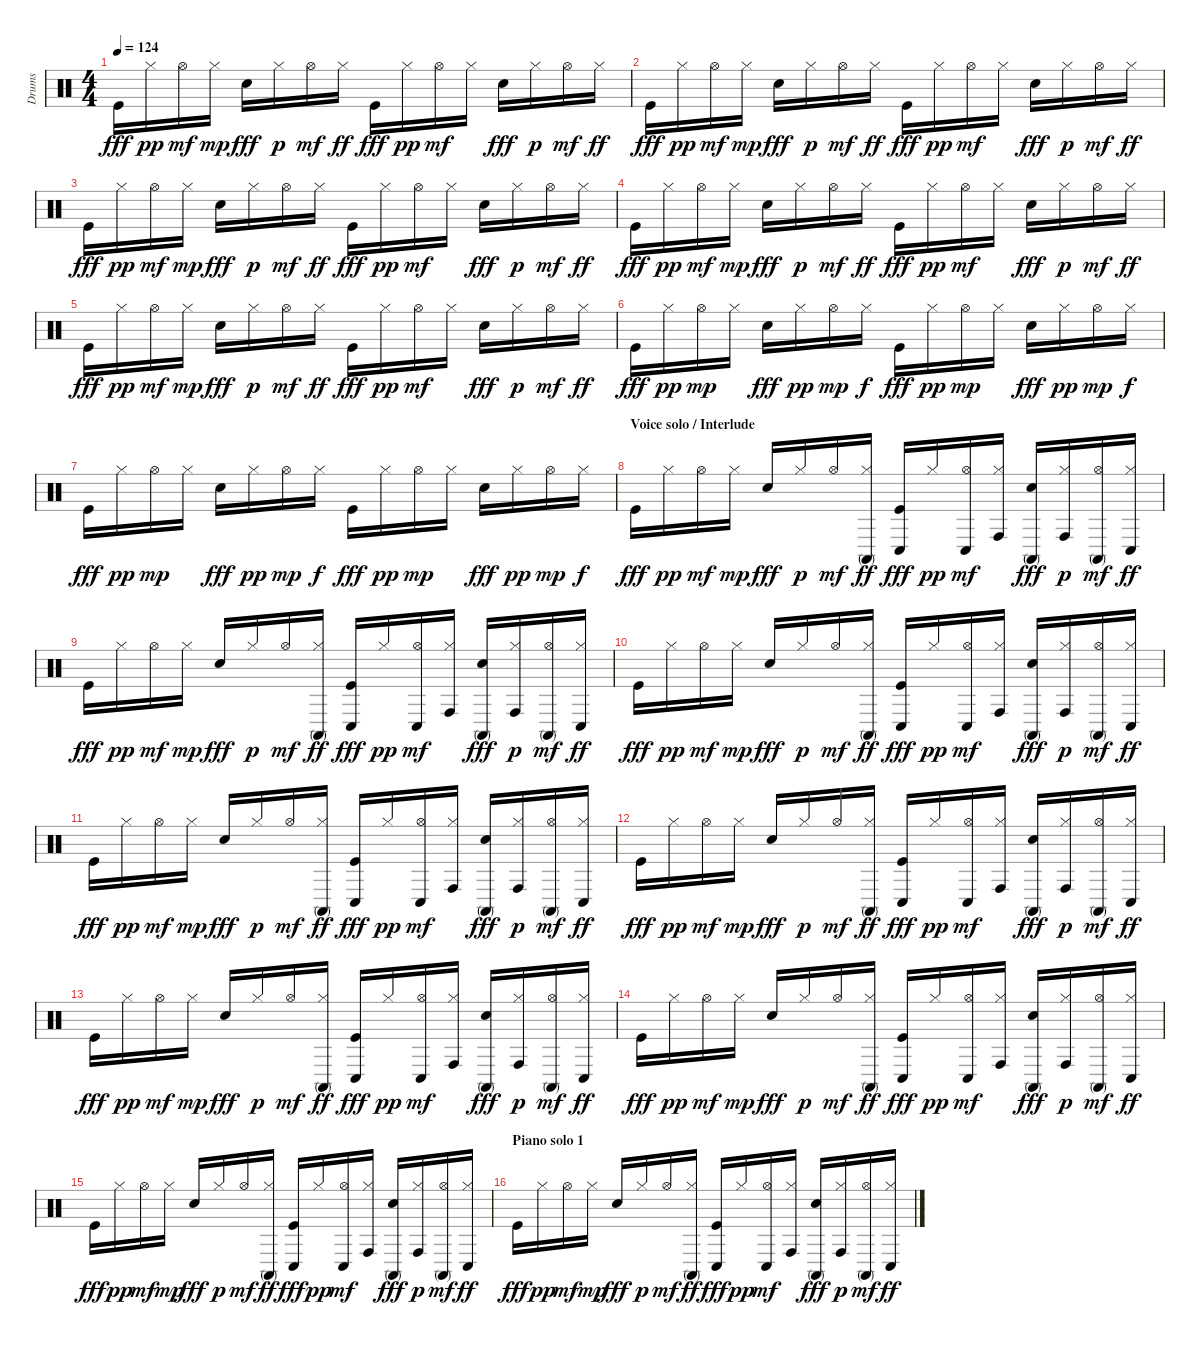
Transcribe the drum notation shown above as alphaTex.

\track ("Drums" "Drums") {instrument percussion}
\staff {score}
\articulation defaults
\ts (4 4)
\tempo 124
\clef neutral
\ks c "Kick (hit)".16{dy fff} "Hi-Hat (closed)".16{dy pp} "Hi-Hat (open)".16{dy mf} "Hi-Hat (closed)".16{dy mp} "Electric Snare (hit)".16{dy fff} "Hi-Hat (closed)".16{dy p} "Hi-Hat (open)".16{dy mf} "Hi-Hat (closed)".16{dy ff} "Kick (hit)".16{dy fff} "Hi-Hat (closed)".16{dy pp} "Hi-Hat (open)".16{dy mf} "Hi-Hat (closed)".16 "Electric Snare (hit)".16{dy fff} "Hi-Hat (closed)".16{dy p} "Hi-Hat (open)".16{dy mf} "Hi-Hat (closed)".16{dy ff}
|
"Kick (hit)".16{dy fff} "Hi-Hat (closed)".16{dy pp} "Hi-Hat (open)".16{dy mf} "Hi-Hat (closed)".16{dy mp} "Electric Snare (hit)".16{dy fff} "Hi-Hat (closed)".16{dy p} "Hi-Hat (open)".16{dy mf} "Hi-Hat (closed)".16{dy ff} "Kick (hit)".16{dy fff} "Hi-Hat (closed)".16{dy pp} "Hi-Hat (open)".16{dy mf} "Hi-Hat (closed)".16 "Electric Snare (hit)".16{dy fff} "Hi-Hat (closed)".16{dy p} "Hi-Hat (open)".16{dy mf} "Hi-Hat (closed)".16{dy ff} |
"Kick (hit)".16{dy fff} "Hi-Hat (closed)".16{dy pp} "Hi-Hat (open)".16{dy mf} "Hi-Hat (closed)".16{dy mp} "Electric Snare (hit)".16{dy fff} "Hi-Hat (closed)".16{dy p} "Hi-Hat (open)".16{dy mf} "Hi-Hat (closed)".16{dy ff} "Kick (hit)".16{dy fff} "Hi-Hat (closed)".16{dy pp} "Hi-Hat (open)".16{dy mf} "Hi-Hat (closed)".16 "Electric Snare (hit)".16{dy fff} "Hi-Hat (closed)".16{dy p} "Hi-Hat (open)".16{dy mf} "Hi-Hat (closed)".16{dy ff} |
"Kick (hit)".16{dy fff} "Hi-Hat (closed)".16{dy pp} "Hi-Hat (open)".16{dy mf} "Hi-Hat (closed)".16{dy mp} "Electric Snare (hit)".16{dy fff} "Hi-Hat (closed)".16{dy p} "Hi-Hat (open)".16{dy mf} "Hi-Hat (closed)".16{dy ff} "Kick (hit)".16{dy fff} "Hi-Hat (closed)".16{dy pp} "Hi-Hat (open)".16{dy mf} "Hi-Hat (closed)".16 "Electric Snare (hit)".16{dy fff} "Hi-Hat (closed)".16{dy p} "Hi-Hat (open)".16{dy mf} "Hi-Hat (closed)".16{dy ff} |
"Kick (hit)".16{dy fff} "Hi-Hat (closed)".16{dy pp} "Hi-Hat (open)".16{dy mf} "Hi-Hat (closed)".16{dy mp} "Electric Snare (hit)".16{dy fff} "Hi-Hat (closed)".16{dy p} "Hi-Hat (open)".16{dy mf} "Hi-Hat (closed)".16{dy ff} "Kick (hit)".16{dy fff} "Hi-Hat (closed)".16{dy pp} "Hi-Hat (open)".16{dy mf} "Hi-Hat (closed)".16 "Electric Snare (hit)".16{dy fff} "Hi-Hat (closed)".16{dy p} "Hi-Hat (open)".16{dy mf} "Hi-Hat (closed)".16{dy ff} |
"Kick (hit)".16{dy fff} "Hi-Hat (closed)".16{dy pp} "Hi-Hat (open)".16{dy mp} "Hi-Hat (closed)".16 "Electric Snare (hit)".16{dy fff} "Hi-Hat (closed)".16{dy pp} "Hi-Hat (open)".16{dy mp} "Hi-Hat (closed)".16{dy f} "Kick (hit)".16{dy fff} "Hi-Hat (closed)".16{dy pp} "Hi-Hat (open)".16{dy mp} "Hi-Hat (closed)".16 "Electric Snare (hit)".16{dy fff} "Hi-Hat (closed)".16{dy pp} "Hi-Hat (open)".16{dy mp} "Hi-Hat (closed)".16{dy f} |
"Kick (hit)".16{dy fff} "Hi-Hat (closed)".16{dy pp} "Hi-Hat (open)".16{dy mp} "Hi-Hat (closed)".16 "Electric Snare (hit)".16{dy fff} "Hi-Hat (closed)".16{dy pp} "Hi-Hat (open)".16{dy mp} "Hi-Hat (closed)".16{dy f} "Kick (hit)".16{dy fff} "Hi-Hat (closed)".16{dy pp} "Hi-Hat (open)".16{dy mp} "Hi-Hat (closed)".16 "Electric Snare (hit)".16{dy fff} "Hi-Hat (closed)".16{dy pp} "Hi-Hat (open)".16{dy mp} "Hi-Hat (closed)".16{dy f} |
\section ("" "Voice solo / Interlude")
"Kick (hit)".16{dy fff} "Hi-Hat (closed)".16{dy pp} "Hi-Hat (open)".16{dy mf} "Hi-Hat (closed)".16{dy mp} "Electric Snare (hit)".16{dy fff} "Hi-Hat (closed)".16{dy p} "Hi-Hat (open)".16{dy mf} ("Conga high (mute)" "Hi-Hat (closed)").16{dy ff} ("Kick (hit)" "Conga low (hit)").16{dy fff} "Hi-Hat (closed)".16{dy pp} ("Conga low (hit)" "Hi-Hat (open)").16{dy mf} ("Conga high (hit)" "Hi-Hat (closed)").16 ("Electric Snare (hit)" "Conga high (mute)").16{dy fff} ("Conga high (hit)" "Hi-Hat (closed)").16{dy p} ("Conga high (mute)" "Hi-Hat (open)").16{dy mf} ("Conga low (hit)" "Hi-Hat (closed)").16{dy ff} |
"Kick (hit)".16{dy fff} "Hi-Hat (closed)".16{dy pp} "Hi-Hat (open)".16{dy mf} "Hi-Hat (closed)".16{dy mp} "Electric Snare (hit)".16{dy fff} "Hi-Hat (closed)".16{dy p} "Hi-Hat (open)".16{dy mf} ("Conga high (mute)" "Hi-Hat (closed)").16{dy ff} ("Kick (hit)" "Conga low (hit)").16{dy fff} "Hi-Hat (closed)".16{dy pp} ("Conga low (hit)" "Hi-Hat (open)").16{dy mf} ("Conga high (hit)" "Hi-Hat (closed)").16 ("Electric Snare (hit)" "Conga high (mute)").16{dy fff} ("Conga high (hit)" "Hi-Hat (closed)").16{dy p} ("Conga high (mute)" "Hi-Hat (open)").16{dy mf} ("Conga low (hit)" "Hi-Hat (closed)").16{dy ff} |
"Kick (hit)".16{dy fff} "Hi-Hat (closed)".16{dy pp} "Hi-Hat (open)".16{dy mf} "Hi-Hat (closed)".16{dy mp} "Electric Snare (hit)".16{dy fff} "Hi-Hat (closed)".16{dy p} "Hi-Hat (open)".16{dy mf} ("Conga high (mute)" "Hi-Hat (closed)").16{dy ff} ("Kick (hit)" "Conga low (hit)").16{dy fff} "Hi-Hat (closed)".16{dy pp} ("Conga low (hit)" "Hi-Hat (open)").16{dy mf} ("Conga high (hit)" "Hi-Hat (closed)").16 ("Electric Snare (hit)" "Conga high (mute)").16{dy fff} ("Conga high (hit)" "Hi-Hat (closed)").16{dy p} ("Conga high (mute)" "Hi-Hat (open)").16{dy mf} ("Conga low (hit)" "Hi-Hat (closed)").16{dy ff} |
"Kick (hit)".16{dy fff} "Hi-Hat (closed)".16{dy pp} "Hi-Hat (open)".16{dy mf} "Hi-Hat (closed)".16{dy mp} "Electric Snare (hit)".16{dy fff} "Hi-Hat (closed)".16{dy p} "Hi-Hat (open)".16{dy mf} ("Conga high (mute)" "Hi-Hat (closed)").16{dy ff} ("Kick (hit)" "Conga low (hit)").16{dy fff} "Hi-Hat (closed)".16{dy pp} ("Conga low (hit)" "Hi-Hat (open)").16{dy mf} ("Conga high (hit)" "Hi-Hat (closed)").16 ("Electric Snare (hit)" "Conga high (mute)").16{dy fff} ("Conga high (hit)" "Hi-Hat (closed)").16{dy p} ("Conga high (mute)" "Hi-Hat (open)").16{dy mf} ("Conga low (hit)" "Hi-Hat (closed)").16{dy ff} |
"Kick (hit)".16{dy fff} "Hi-Hat (closed)".16{dy pp} "Hi-Hat (open)".16{dy mf} "Hi-Hat (closed)".16{dy mp} "Electric Snare (hit)".16{dy fff} "Hi-Hat (closed)".16{dy p} "Hi-Hat (open)".16{dy mf} ("Conga high (mute)" "Hi-Hat (closed)").16{dy ff} ("Kick (hit)" "Conga low (hit)").16{dy fff} "Hi-Hat (closed)".16{dy pp} ("Conga low (hit)" "Hi-Hat (open)").16{dy mf} ("Conga high (hit)" "Hi-Hat (closed)").16 ("Electric Snare (hit)" "Conga high (mute)").16{dy fff} ("Conga high (hit)" "Hi-Hat (closed)").16{dy p} ("Conga high (mute)" "Hi-Hat (open)").16{dy mf} ("Conga low (hit)" "Hi-Hat (closed)").16{dy ff} |
"Kick (hit)".16{dy fff} "Hi-Hat (closed)".16{dy pp} "Hi-Hat (open)".16{dy mf} "Hi-Hat (closed)".16{dy mp} "Electric Snare (hit)".16{dy fff} "Hi-Hat (closed)".16{dy p} "Hi-Hat (open)".16{dy mf} ("Conga high (mute)" "Hi-Hat (closed)").16{dy ff} ("Kick (hit)" "Conga low (hit)").16{dy fff} "Hi-Hat (closed)".16{dy pp} ("Conga low (hit)" "Hi-Hat (open)").16{dy mf} ("Conga high (hit)" "Hi-Hat (closed)").16 ("Electric Snare (hit)" "Conga high (mute)").16{dy fff} ("Conga high (hit)" "Hi-Hat (closed)").16{dy p} ("Conga high (mute)" "Hi-Hat (open)").16{dy mf} ("Conga low (hit)" "Hi-Hat (closed)").16{dy ff} |
"Kick (hit)".16{dy fff} "Hi-Hat (closed)".16{dy pp} "Hi-Hat (open)".16{dy mf} "Hi-Hat (closed)".16{dy mp} "Electric Snare (hit)".16{dy fff} "Hi-Hat (closed)".16{dy p} "Hi-Hat (open)".16{dy mf} ("Conga high (mute)" "Hi-Hat (closed)").16{dy ff} ("Kick (hit)" "Conga low (hit)").16{dy fff} "Hi-Hat (closed)".16{dy pp} ("Conga low (hit)" "Hi-Hat (open)").16{dy mf} ("Conga high (hit)" "Hi-Hat (closed)").16 ("Electric Snare (hit)" "Conga high (mute)").16{dy fff} ("Conga high (hit)" "Hi-Hat (closed)").16{dy p} ("Conga high (mute)" "Hi-Hat (open)").16{dy mf} ("Conga low (hit)" "Hi-Hat (closed)").16{dy ff} |
"Kick (hit)".16{dy fff} "Hi-Hat (closed)".16{dy pp} "Hi-Hat (open)".16{dy mf} "Hi-Hat (closed)".16{dy mp} "Electric Snare (hit)".16{dy fff} "Hi-Hat (closed)".16{dy p} "Hi-Hat (open)".16{dy mf} ("Conga high (mute)" "Hi-Hat (closed)").16{dy ff} ("Kick (hit)" "Conga low (hit)").16{dy fff} "Hi-Hat (closed)".16{dy pp} ("Conga low (hit)" "Hi-Hat (open)").16{dy mf} ("Conga high (hit)" "Hi-Hat (closed)").16 ("Electric Snare (hit)" "Conga high (mute)").16{dy fff} ("Conga high (hit)" "Hi-Hat (closed)").16{dy p} ("Conga high (mute)" "Hi-Hat (open)").16{dy mf} ("Conga low (hit)" "Hi-Hat (closed)").16{dy ff} |
\section ("" "Piano solo 1")
"Kick (hit)".16{dy fff} "Hi-Hat (closed)".16{dy pp} "Hi-Hat (open)".16{dy mf} "Hi-Hat (closed)".16{dy mp} "Electric Snare (hit)".16{dy fff} "Hi-Hat (closed)".16{dy p} "Hi-Hat (open)".16{dy mf} ("Conga high (mute)" "Hi-Hat (closed)").16{dy ff} ("Kick (hit)" "Conga low (hit)").16{dy fff} "Hi-Hat (closed)".16{dy pp} ("Conga low (hit)" "Hi-Hat (open)").16{dy mf} ("Conga high (hit)" "Hi-Hat (closed)").16 ("Electric Snare (hit)" "Conga high (mute)").16{dy fff} ("Conga high (hit)" "Hi-Hat (closed)").16{dy p} ("Conga high (mute)" "Hi-Hat (open)").16{dy mf} ("Conga low (hit)" "Hi-Hat (closed)").16{dy ff}
